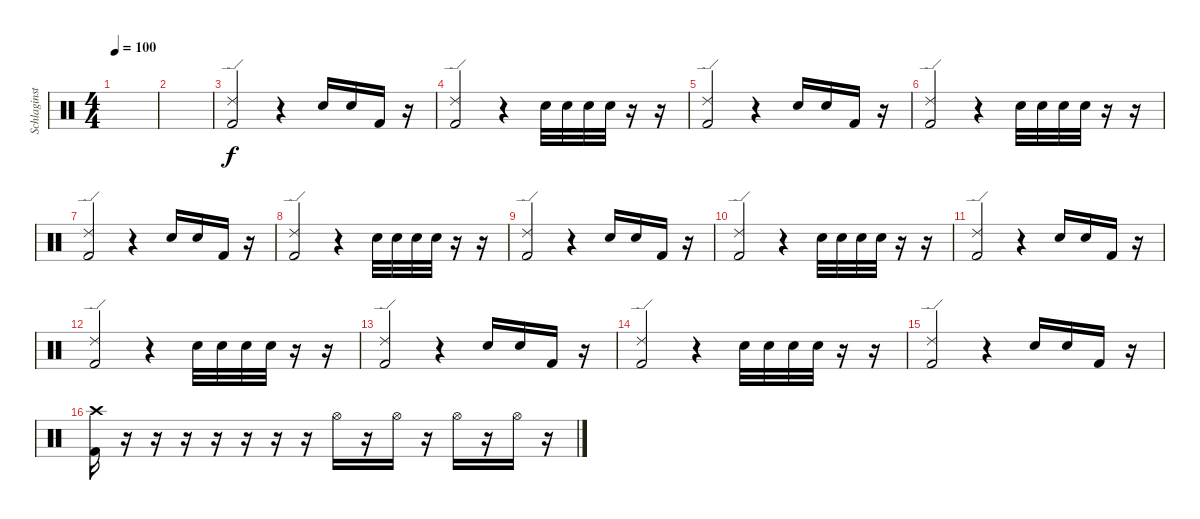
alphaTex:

\track ("Schlaginstrumente - Auswahl" "Schlaginst") {instrument percussion}
\staff {score}
\articulation defaults
\ts (4 4)
\tempo 100
\clef neutral
\ks c
|
|
("Ride (edge) 2" "Kick (hit) 2").2 r.4 "Electric Snare (hit)".16 "Electric Snare (hit)".16 "Kick (hit) 2".16 r.16 |
("Ride (edge) 2" "Kick (hit) 2").2 r.4 "Electric Snare (hit)".32 "Electric Snare (hit)".32 "Electric Snare (hit)".32 "Electric Snare (hit)".32 r.16 r.16 |
("Ride (edge) 2" "Kick (hit) 2").2 r.4 "Electric Snare (hit)".16 "Electric Snare (hit)".16 "Kick (hit) 2".16 r.16 |
("Ride (edge) 2" "Kick (hit) 2").2 r.4 "Electric Snare (hit)".32 "Electric Snare (hit)".32 "Electric Snare (hit)".32 "Electric Snare (hit)".32 r.16 r.16 |
("Ride (edge) 2" "Kick (hit) 2").2 r.4 "Electric Snare (hit)".16 "Electric Snare (hit)".16 "Kick (hit) 2".16 r.16 |
("Ride (edge) 2" "Kick (hit) 2").2 r.4 "Electric Snare (hit)".32 "Electric Snare (hit)".32 "Electric Snare (hit)".32 "Electric Snare (hit)".32 r.16 r.16 |
("Ride (edge) 2" "Kick (hit) 2").2 r.4 "Electric Snare (hit)".16 "Electric Snare (hit)".16 "Kick (hit) 2".16 r.16 |
("Ride (edge) 2" "Kick (hit) 2").2 r.4 "Electric Snare (hit)".32 "Electric Snare (hit)".32 "Electric Snare (hit)".32 "Electric Snare (hit)".32 r.16 r.16 |
("Ride (edge) 2" "Kick (hit) 2").2 r.4 "Electric Snare (hit)".16 "Electric Snare (hit)".16 "Kick (hit) 2".16 r.16 |
("Ride (edge) 2" "Kick (hit) 2").2 r.4 "Electric Snare (hit)".32 "Electric Snare (hit)".32 "Electric Snare (hit)".32 "Electric Snare (hit)".32 r.16 r.16 |
("Ride (edge) 2" "Kick (hit) 2").2 r.4 "Electric Snare (hit)".16 "Electric Snare (hit)".16 "Kick (hit) 2".16 r.16 |
("Ride (edge) 2" "Kick (hit) 2").2 r.4 "Electric Snare (hit)".32 "Electric Snare (hit)".32 "Electric Snare (hit)".32 "Electric Snare (hit)".32 r.16 r.16 |
("Ride (edge) 2" "Kick (hit) 2").2 r.4 "Electric Snare (hit)".16 "Electric Snare (hit)".16 "Kick (hit) 2".16 r.16 |
("Crash high (hit)" "Kick (hit) 2").16 r.16 r.16 r.16 r.16 r.16 r.16 r.16 "Hi-Hat (open)".16 r.16 "Hi-Hat (open)".16 r.16 "Hi-Hat (open)".16 r.16 "Hi-Hat (open)".16 r.16
